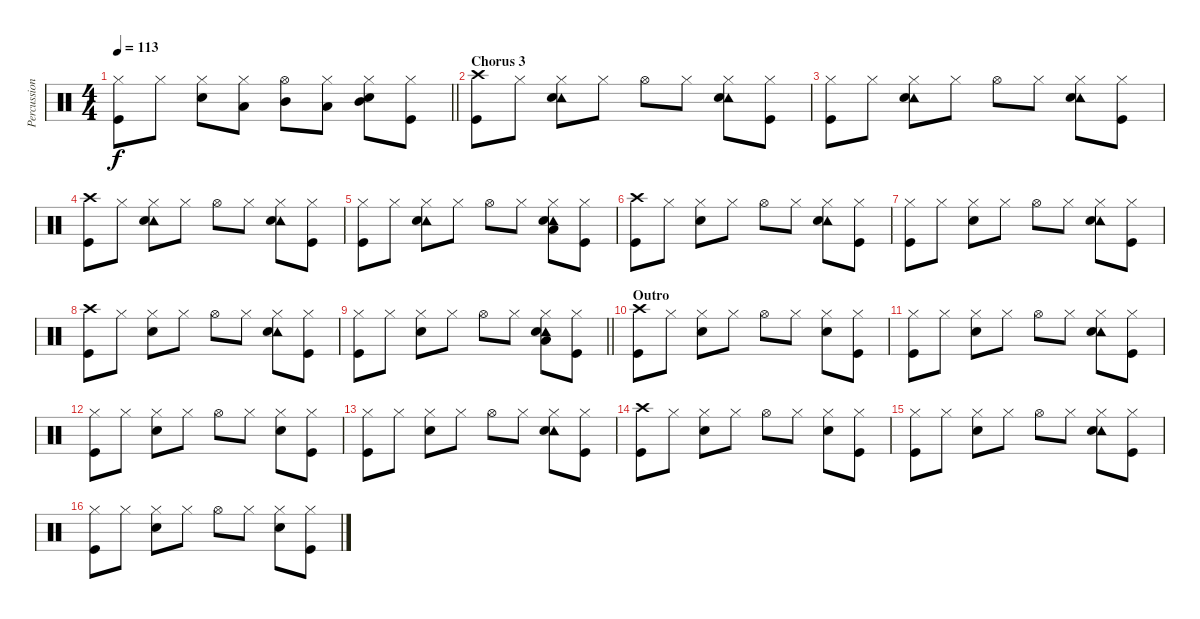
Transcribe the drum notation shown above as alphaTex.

\track ("Percussion" "Percussion") {instrument percussion}
\staff {score}
\articulation defaults
\ts (4 4)
\tempo 113
\clef neutral
\barLineRight lightlight
\ks c
("Hi-Hat (closed)" "Kick (hit)").8{dy f} "Hi-Hat (closed)".8 ("Hi-Hat (closed)" "Snare (hit) 2").8 ("Hi-Hat (closed)" "Low Tom (hit)").8 ("Hi-Hat (open)" "Mid Tom (hit)").8 ("Hi-Hat (closed)" "Low Tom (hit)").8 ("Hi-Hat (closed)" "Mid Tom (hit)" "Snare (hit) 2").8 ("Hi-Hat (closed)" "Kick (hit)").8 |
\section ("" "Chorus 3")
("Crash high (hit)" "Kick (hit)").8 "Hi-Hat (closed)".8 ("Hi-Hat (closed)" "Tambourine (hit)" "Snare (hit) 2").8 "Hi-Hat (closed)".8 "Hi-Hat (open)".8 "Hi-Hat (closed)".8 ("Hi-Hat (closed)" "Tambourine (hit)" "Snare (hit) 2").8 ("Hi-Hat (closed)" "Kick (hit)").8 |
("Hi-Hat (closed)" "Kick (hit)").8 "Hi-Hat (closed)".8 ("Hi-Hat (closed)" "Tambourine (hit)" "Snare (hit) 2").8 "Hi-Hat (closed)".8 "Hi-Hat (open)".8 "Hi-Hat (closed)".8 ("Hi-Hat (closed)" "Tambourine (hit)" "Snare (hit) 2").8 ("Hi-Hat (closed)" "Kick (hit)").8 |
("Crash high (hit)" "Kick (hit)").8 "Hi-Hat (closed)".8 ("Hi-Hat (closed)" "Tambourine (hit)" "Snare (hit) 2").8 "Hi-Hat (closed)".8 "Hi-Hat (open)".8 "Hi-Hat (closed)".8 ("Hi-Hat (closed)" "Tambourine (hit)" "Snare (hit) 2").8 ("Hi-Hat (closed)" "Kick (hit)").8 |
("Hi-Hat (closed)" "Kick (hit)").8 "Hi-Hat (closed)".8 ("Hi-Hat (closed)" "Tambourine (hit)" "Snare (hit) 2").8 "Hi-Hat (closed)".8 "Hi-Hat (open)".8 "Hi-Hat (closed)".8 ("Hi-Hat (closed)" "Tambourine (hit)" "Low Tom (hit)" "Snare (hit) 2").8 ("Hi-Hat (closed)" "Kick (hit)").8 |
("Crash high (hit)" "Kick (hit)").8 "Hi-Hat (closed)".8 ("Hi-Hat (closed)" "Snare (hit) 2").8 "Hi-Hat (closed)".8 "Hi-Hat (open)".8 "Hi-Hat (closed)".8 ("Hi-Hat (closed)" "Tambourine (hit)" "Snare (hit) 2").8 ("Hi-Hat (closed)" "Kick (hit)").8 |
("Hi-Hat (closed)" "Kick (hit)").8 "Hi-Hat (closed)".8 ("Hi-Hat (closed)" "Snare (hit) 2").8 "Hi-Hat (closed)".8 "Hi-Hat (open)".8 "Hi-Hat (closed)".8 ("Hi-Hat (closed)" "Tambourine (hit)" "Snare (hit) 2").8 ("Hi-Hat (closed)" "Kick (hit)").8 |
("Crash high (hit)" "Kick (hit)").8 "Hi-Hat (closed)".8 ("Hi-Hat (closed)" "Snare (hit) 2").8 "Hi-Hat (closed)".8 "Hi-Hat (open)".8 "Hi-Hat (closed)".8 ("Hi-Hat (closed)" "Tambourine (hit)" "Snare (hit) 2").8 ("Hi-Hat (closed)" "Kick (hit)").8 |
\barLineRight lightlight
("Hi-Hat (closed)" "Kick (hit)").8 "Hi-Hat (closed)".8 ("Hi-Hat (closed)" "Snare (hit) 2").8 "Hi-Hat (closed)".8 "Hi-Hat (open)".8 "Hi-Hat (closed)".8 ("Hi-Hat (closed)" "Tambourine (hit)" "Low Tom (hit)" "Snare (hit) 2").8 ("Hi-Hat (closed)" "Kick (hit)").8 |
\section ("" "Outro")
("Crash high (hit)" "Kick (hit)").8 "Hi-Hat (closed)".8 ("Hi-Hat (closed)" "Snare (hit) 2").8 "Hi-Hat (closed)".8 "Hi-Hat (open)".8 "Hi-Hat (closed)".8 ("Hi-Hat (closed)" "Snare (hit) 2").8 ("Hi-Hat (closed)" "Kick (hit)").8 |
("Hi-Hat (closed)" "Kick (hit)").8 "Hi-Hat (closed)".8 ("Hi-Hat (closed)" "Snare (hit) 2").8 "Hi-Hat (closed)".8 "Hi-Hat (open)".8 "Hi-Hat (closed)".8 ("Hi-Hat (closed)" "Tambourine (hit)" "Snare (hit) 2").8 ("Hi-Hat (closed)" "Kick (hit)").8 |
("Hi-Hat (closed)" "Kick (hit)").8 "Hi-Hat (closed)".8 ("Hi-Hat (closed)" "Snare (hit) 2").8 "Hi-Hat (closed)".8 "Hi-Hat (open)".8 "Hi-Hat (closed)".8 ("Hi-Hat (closed)" "Snare (hit) 2").8 ("Hi-Hat (closed)" "Kick (hit)").8 |
("Hi-Hat (closed)" "Kick (hit)").8 "Hi-Hat (closed)".8 ("Hi-Hat (closed)" "Snare (hit) 2").8 "Hi-Hat (closed)".8 "Hi-Hat (open)".8 "Hi-Hat (closed)".8 ("Hi-Hat (closed)" "Tambourine (hit)" "Snare (hit) 2").8 ("Hi-Hat (closed)" "Kick (hit)").8 |
("Crash high (hit)" "Kick (hit)").8 "Hi-Hat (closed)".8 ("Hi-Hat (closed)" "Snare (hit) 2").8 "Hi-Hat (closed)".8 "Hi-Hat (open)".8 "Hi-Hat (closed)".8 ("Hi-Hat (closed)" "Snare (hit) 2").8 ("Hi-Hat (closed)" "Kick (hit)").8 |
("Hi-Hat (closed)" "Kick (hit)").8 "Hi-Hat (closed)".8 ("Hi-Hat (closed)" "Snare (hit) 2").8 "Hi-Hat (closed)".8 "Hi-Hat (open)".8 "Hi-Hat (closed)".8 ("Hi-Hat (closed)" "Tambourine (hit)" "Snare (hit) 2").8 ("Hi-Hat (closed)" "Kick (hit)").8 |
("Hi-Hat (closed)" "Kick (hit)").8 "Hi-Hat (closed)".8 ("Hi-Hat (closed)" "Snare (hit) 2").8 "Hi-Hat (closed)".8 "Hi-Hat (open)".8 "Hi-Hat (closed)".8 ("Hi-Hat (closed)" "Snare (hit) 2").8 ("Hi-Hat (closed)" "Kick (hit)").8
